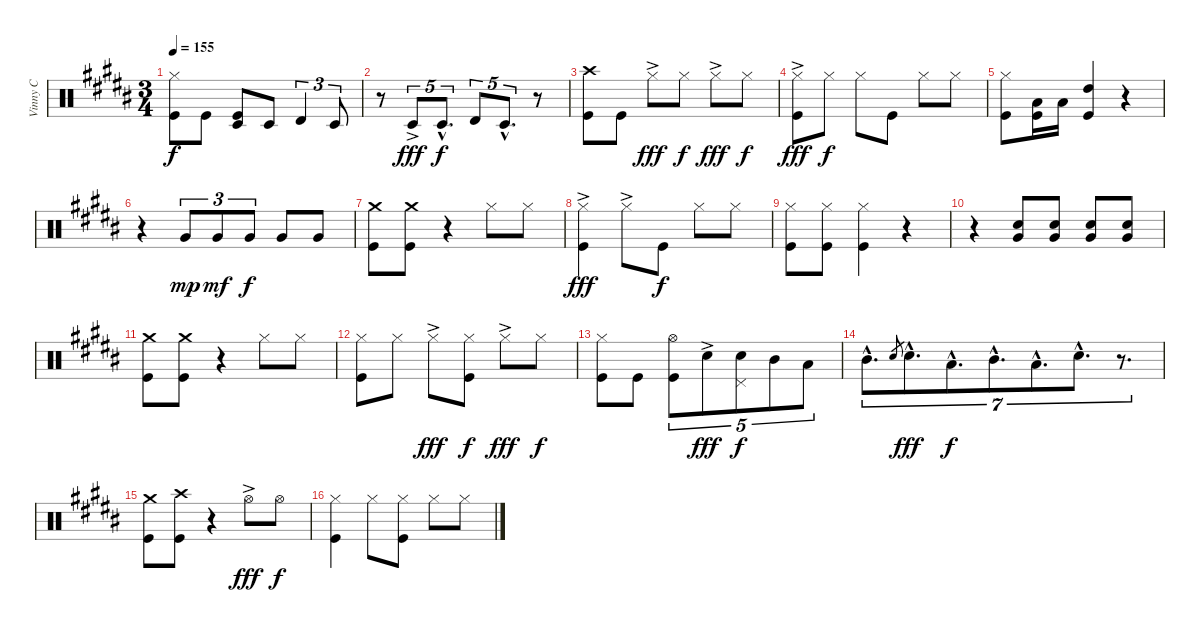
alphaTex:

\track ("Vinny C" "Vinny C") {instrument percussion}
\staff {score}
\articulation defaults
\ts (3 4)
\tempo 155
\clef neutral
\ks b
("Hi-Hat (closed)" "Kick (hit)").8{dy f} "Kick (hit)".8 ("Timbale low (hit)" "Kick (hit)").8 "Timbale low (hit)".8 "Timbale high (hit)".4{tu (3 2)} "Timbale low (hit)".8{tu (3 2)} |
r.8 "Timbale low (hit)"{ac}.8{tu (5 4) dy fff} "Timbale low (hit)"{hac}.8{d tu (5 4) dy f} "Timbale high (hit)".8{tu (5 4)} "Timbale low (hit)"{hac}.8{d tu (5 4)} r.8 |
("Crash high (hit)" "Kick (hit)").8 "Kick (hit)".8 "Hi-Hat (closed)"{ac}.8{dy fff} "Hi-Hat (closed)".8{dy f} "Hi-Hat (closed)"{ac}.8{dy fff} "Hi-Hat (closed)".8{dy f} |
("Hi-Hat (closed)" "Kick (hit)"{ac}).8{dy fff} "Hi-Hat (closed)".8{dy f} "Hi-Hat (closed)".8 "Kick (hit)".8 "Hi-Hat (closed)".8 "Hi-Hat (closed)".8 |
("Hi-Hat (closed)" "Kick (hit)").8 ("Low Tom (hit)" "Kick (hit)").16 "Low Tom (hit)".16 ("High Tom (hit)" "Kick (hit)").4 r.4 |
r.4 "Very Low Tom (hit)".8{tu (3 2) dy mp} "Very Low Tom (hit)".8{tu (3 2) dy mf} "Very Low Tom (hit)".8{tu (3 2) dy f} "Very Low Tom (hit)".8 "Very Low Tom (hit)".8 |
("Crash medium (hit)" "Kick (hit)").8 ("Crash medium (hit)" "Kick (hit)").8 r.4 "Hi-Hat (closed)".8 "Hi-Hat (closed)".8 |
("Hi-Hat (closed)"{ac} "Kick (hit)").4{dy fff} "Hi-Hat (closed)"{ac}.8 "Kick (hit)".8{dy f} "Hi-Hat (closed)".8 "Hi-Hat (closed)".8 |
("Hi-Hat (closed)" "Kick (hit)").8 ("Hi-Hat (closed)" "Kick (hit)").8 ("Hi-Hat (closed)" "Kick (hit)").4 r.4 |
r.4 ("Electric Snare (hit)" "Very Low Tom (hit)").8 ("Electric Snare (hit)" "Very Low Tom (hit)").8 ("Electric Snare (hit)" "Very Low Tom (hit)").8 ("Electric Snare (hit)" "Very Low Tom (hit)").8 |
("Crash medium (hit)" "Kick (hit)").8 ("Crash medium (hit)" "Kick (hit)").8 r.4 "Hi-Hat (closed)".8 "Hi-Hat (closed)".8 |
("Hi-Hat (closed)" "Kick (hit)").8 "Hi-Hat (closed)".8 "Hi-Hat (closed)"{ac}.8{dy fff} ("Hi-Hat (closed)" "Kick (hit)").8{dy f} "Hi-Hat (closed)"{ac}.8{dy fff} "Hi-Hat (closed)".8{dy f} |
("Hi-Hat (closed)" "Kick (hit)").8 "Kick (hit)".8 ("Hi-Hat (open)" "Kick (hit)").8{tu (5 4)} "Electric Snare (hit)"{ac}.8{tu (5 4) dy fff} ("Pedal Hi-Hat (hit)" "Electric Snare (hit)").8{tu (5 4) dy f} "Mid Tom (hit)".8{tu (5 4)} "Low Tom (hit)".8{tu (5 4)} |
"Mid Tom (hit)"{hac}.8{d tu (7 4)} "Electric Snare (hit)".8{gr} "Electric Snare (hit)"{hac}.8{d tu (7 4) dy fff} "Low Tom (hit)"{hac}.8{d tu (7 4) dy f} "Mid Tom (hit)"{hac}.8{d tu (7 4)} "Low Tom (hit)"{hac}.8{d tu (7 4)} "Electric Snare (hit)"{hac}.8{d tu (7 4)} r.8{d tu (7 4)} |
("Crash medium (hit)" "Kick (hit)").8 ("Crash high (hit)" "Kick (hit)").8 r.4 "Hi-Hat (open)"{ac}.8{dy fff} "Hi-Hat (open)".8{dy f} |
("Hi-Hat (closed)" "Kick (hit)").4 "Hi-Hat (closed)".8 ("Hi-Hat (closed)" "Kick (hit)").8 "Hi-Hat (closed)".8 "Hi-Hat (closed)".8
